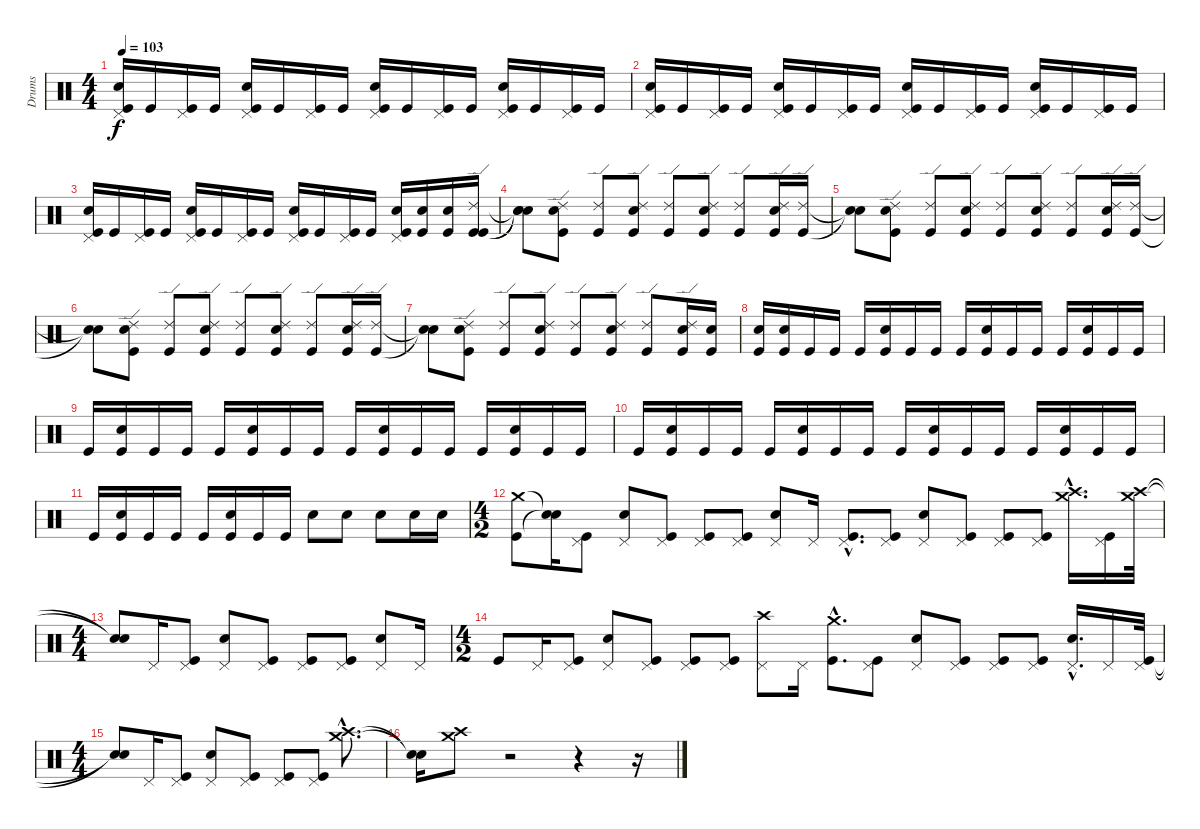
\track ("Drums" "Drums") {instrument percussion}
\staff {score}
\articulation defaults
\ts (4 4)
\tempo 103
\clef neutral
\ks c
("Pedal Hi-Hat (hit)" "Electric Snare (hit)" "Kick (hit)").16{dy f} "Kick (hit)".16 ("Pedal Hi-Hat (hit)" "Kick (hit)").16 "Kick (hit)".16 ("Pedal Hi-Hat (hit)" "Electric Snare (hit)" "Kick (hit)").16 "Kick (hit)".16 ("Pedal Hi-Hat (hit)" "Kick (hit)").16 "Kick (hit)".16 ("Pedal Hi-Hat (hit)" "Electric Snare (hit)" "Kick (hit)").16 "Kick (hit)".16 ("Pedal Hi-Hat (hit)" "Kick (hit)").16 "Kick (hit)".16 ("Pedal Hi-Hat (hit)" "Electric Snare (hit)" "Kick (hit)").16 "Kick (hit)".16 ("Pedal Hi-Hat (hit)" "Kick (hit)").16 "Kick (hit)".16 |
("Pedal Hi-Hat (hit)" "Electric Snare (hit)" "Kick (hit)").16 "Kick (hit)".16 ("Pedal Hi-Hat (hit)" "Kick (hit)").16 "Kick (hit)".16 ("Pedal Hi-Hat (hit)" "Electric Snare (hit)" "Kick (hit)").16 "Kick (hit)".16 ("Pedal Hi-Hat (hit)" "Kick (hit)").16 "Kick (hit)".16 ("Pedal Hi-Hat (hit)" "Electric Snare (hit)" "Kick (hit)").16 "Kick (hit)".16 ("Pedal Hi-Hat (hit)" "Kick (hit)").16 "Kick (hit)".16 ("Pedal Hi-Hat (hit)" "Electric Snare (hit)" "Kick (hit)").16 "Kick (hit)".16 ("Pedal Hi-Hat (hit)" "Kick (hit)").16 "Kick (hit)".16 |
("Pedal Hi-Hat (hit)" "Electric Snare (hit)" "Kick (hit)").16 "Kick (hit)".16 ("Pedal Hi-Hat (hit)" "Kick (hit)").16 "Kick (hit)".16 ("Pedal Hi-Hat (hit)" "Electric Snare (hit)" "Kick (hit)").16 "Kick (hit)".16 ("Pedal Hi-Hat (hit)" "Kick (hit)").16 "Kick (hit)".16 ("Pedal Hi-Hat (hit)" "Electric Snare (hit)" "Kick (hit)").16 "Kick (hit)".16 ("Pedal Hi-Hat (hit)" "Kick (hit)").16 "Kick (hit)".16 ("Pedal Hi-Hat (hit)" "Electric Snare (hit)" "Kick (hit)").16 ("Electric Snare (hit)" "Kick (hit)").16 ("Electric Snare (hit)" "Kick (hit)").16 ("Ride (edge) 2" "Kick (hit)" "Kick (hit)").16 |
("Snare (hit)"{t} "Snare (hit)"{t} "Snare (hit)"{t}).8 ("Ride (edge) 2" "Electric Snare (hit)" "Kick (hit)").8 ("Ride (edge) 2" "Kick (hit)").8 ("Ride (edge) 2" "Electric Snare (hit)" "Kick (hit)").8 ("Ride (edge) 2" "Kick (hit)").8 ("Ride (edge) 2" "Electric Snare (hit)" "Kick (hit)").8 ("Ride (edge) 2" "Kick (hit)").8 ("Ride (edge) 2" "Electric Snare (hit)" "Kick (hit)").16 ("Ride (edge) 2" "Kick (hit)").16 |
("Snare (hit)"{t} "Snare (hit)"{t}).8 ("Ride (edge) 2" "Electric Snare (hit)" "Kick (hit)").8 ("Ride (edge) 2" "Kick (hit)").8 ("Ride (edge) 2" "Electric Snare (hit)" "Kick (hit)").8 ("Ride (edge) 2" "Kick (hit)").8 ("Ride (edge) 2" "Electric Snare (hit)" "Kick (hit)").8 ("Ride (edge) 2" "Kick (hit)").8 ("Ride (edge) 2" "Electric Snare (hit)" "Kick (hit)").16 ("Ride (edge) 2" "Kick (hit)").16 |
("Snare (hit)"{t} "Snare (hit)"{t}).8 ("Ride (edge) 2" "Electric Snare (hit)" "Kick (hit)").8 ("Ride (edge) 2" "Kick (hit)").8 ("Ride (edge) 2" "Electric Snare (hit)" "Kick (hit)").8 ("Ride (edge) 2" "Kick (hit)").8 ("Ride (edge) 2" "Electric Snare (hit)" "Kick (hit)").8 ("Ride (edge) 2" "Kick (hit)").8 ("Ride (edge) 2" "Electric Snare (hit)" "Kick (hit)").16 ("Ride (edge) 2" "Kick (hit)").16 |
("Snare (hit)"{t} "Snare (hit)"{t}).8 ("Ride (edge) 2" "Electric Snare (hit)" "Kick (hit)").8 ("Ride (edge) 2" "Kick (hit)").8 ("Ride (edge) 2" "Electric Snare (hit)" "Kick (hit)").8 ("Ride (edge) 2" "Kick (hit)").8 ("Ride (edge) 2" "Electric Snare (hit)" "Kick (hit)").8 ("Ride (edge) 2" "Kick (hit)").8 ("Ride (edge) 2" "Electric Snare (hit)" "Kick (hit)").16 ("Electric Snare (hit)" "Kick (hit)").16 |
("Electric Snare (hit)" "Kick (hit)").16 ("Electric Snare (hit)" "Kick (hit)").16 "Kick (hit)".16 "Kick (hit)".16 "Kick (hit)".16 ("Electric Snare (hit)" "Kick (hit)").16 "Kick (hit)".16 "Kick (hit)".16 "Kick (hit)".16 ("Electric Snare (hit)" "Kick (hit)").16 "Kick (hit)".16 "Kick (hit)".16 "Kick (hit)".16 ("Electric Snare (hit)" "Kick (hit)").16 "Kick (hit)".16 "Kick (hit)".16 |
"Kick (hit)".16 ("Electric Snare (hit)" "Kick (hit)").16 "Kick (hit)".16 "Kick (hit)".16 "Kick (hit)".16 ("Electric Snare (hit)" "Kick (hit)").16 "Kick (hit)".16 "Kick (hit)".16 "Kick (hit)".16 ("Electric Snare (hit)" "Kick (hit)").16 "Kick (hit)".16 "Kick (hit)".16 "Kick (hit)".16 ("Electric Snare (hit)" "Kick (hit)").16 "Kick (hit)".16 "Kick (hit)".16 |
"Kick (hit)".16 ("Electric Snare (hit)" "Kick (hit)").16 "Kick (hit)".16 "Kick (hit)".16 "Kick (hit)".16 ("Electric Snare (hit)" "Kick (hit)").16 "Kick (hit)".16 "Kick (hit)".16 "Kick (hit)".16 ("Electric Snare (hit)" "Kick (hit)").16 "Kick (hit)".16 "Kick (hit)".16 "Kick (hit)".16 ("Electric Snare (hit)" "Kick (hit)").16 "Kick (hit)".16 "Kick (hit)".16 |
"Kick (hit)".16 ("Electric Snare (hit)" "Kick (hit)").16 "Kick (hit)".16 "Kick (hit)".16 "Kick (hit)".16 ("Electric Snare (hit)" "Kick (hit)").16 "Kick (hit)".16 "Kick (hit)".16 "Electric Snare (hit)".8 "Electric Snare (hit)".8 "Electric Snare (hit)".8 "Electric Snare (hit)".16 "Electric Snare (hit)".16 |
\ts (4 2)
("Crash medium (hit)" "Kick (hit)").8 ("Snare (hit)"{t} "Snare (hit)"{t}).16 ("Pedal Hi-Hat (hit)" "Kick (hit)").8 ("Pedal Hi-Hat (hit)" "Electric Snare (hit)").8 ("Pedal Hi-Hat (hit)" "Kick (hit)").8 ("Pedal Hi-Hat (hit)" "Kick (hit)").8 ("Pedal Hi-Hat (hit)" "Kick (hit)").8 ("Electric Snare (hit)" "Pedal Hi-Hat (hit)").8 "Pedal Hi-Hat (hit)".16 ("Pedal Hi-Hat (hit)"{hac} "Kick (hit)"{hac}).8{d} ("Pedal Hi-Hat (hit)" "Kick (hit)").8 ("Pedal Hi-Hat (hit)" "Electric Snare (hit)").8 ("Pedal Hi-Hat (hit)" "Kick (hit)").8 ("Pedal Hi-Hat (hit)" "Kick (hit)").8 ("Pedal Hi-Hat (hit)" "Kick (hit)").8 ("Crash medium (hit)"{hac} "Crash high (hit)"{hac}).16{d} ("Pedal Hi-Hat (hit)" "Kick (hit)").16 ("Crash high (hit)" "Crash medium (hit)").32 |
\ts (4 4)
("Snare (hit)"{t} "Snare (hit)"{t}).8 "Pedal Hi-Hat (hit)".16 ("Pedal Hi-Hat (hit)" "Kick (hit)").8 ("Pedal Hi-Hat (hit)" "Electric Snare (hit)").8 ("Pedal Hi-Hat (hit)" "Kick (hit)").8 ("Pedal Hi-Hat (hit)" "Kick (hit)").8 ("Pedal Hi-Hat (hit)" "Kick (hit)").8 ("Electric Snare (hit)" "Pedal Hi-Hat (hit)").8 "Pedal Hi-Hat (hit)".16 |
\ts (4 2)
"Kick (hit)".8 "Pedal Hi-Hat (hit)".16 ("Pedal Hi-Hat (hit)" "Kick (hit)").8 ("Pedal Hi-Hat (hit)" "Electric Snare (hit)").8 ("Pedal Hi-Hat (hit)" "Kick (hit)").8 ("Pedal Hi-Hat (hit)" "Kick (hit)").8 ("Pedal Hi-Hat (hit)" "Kick (hit)").8 ("Crash high (hit)" "Pedal Hi-Hat (hit)").8 "Pedal Hi-Hat (hit)".16 ("Crash medium (hit)"{hac} "Kick (hit)"{hac}).8{d} ("Pedal Hi-Hat (hit)" "Kick (hit)").8 ("Pedal Hi-Hat (hit)" "Electric Snare (hit)").8 ("Pedal Hi-Hat (hit)" "Kick (hit)").8 ("Pedal Hi-Hat (hit)" "Kick (hit)").8 ("Pedal Hi-Hat (hit)" "Kick (hit)").8 ("Pedal Hi-Hat (hit)"{hac} "Electric Snare (hit)"{hac}).16{d} "Pedal Hi-Hat (hit)".16 ("Pedal Hi-Hat (hit)" "Kick (hit)").32 |
\ts (4 4)
("Snare (hit)"{t} "Snare (hit)"{t}).8 "Pedal Hi-Hat (hit)".16 ("Pedal Hi-Hat (hit)" "Kick (hit)").8 ("Pedal Hi-Hat (hit)" "Electric Snare (hit)").8 ("Pedal Hi-Hat (hit)" "Kick (hit)").8 ("Pedal Hi-Hat (hit)" "Kick (hit)").8 ("Pedal Hi-Hat (hit)" "Kick (hit)").8 ("Crash medium (hit)"{hac} "Crash high (hit)"{hac}).8{d} |
("Snare (hit)"{t} "Snare (hit)"{t}).16 ("Crash high (hit)" "Crash medium (hit)").8 r.2 r.4 r.16
